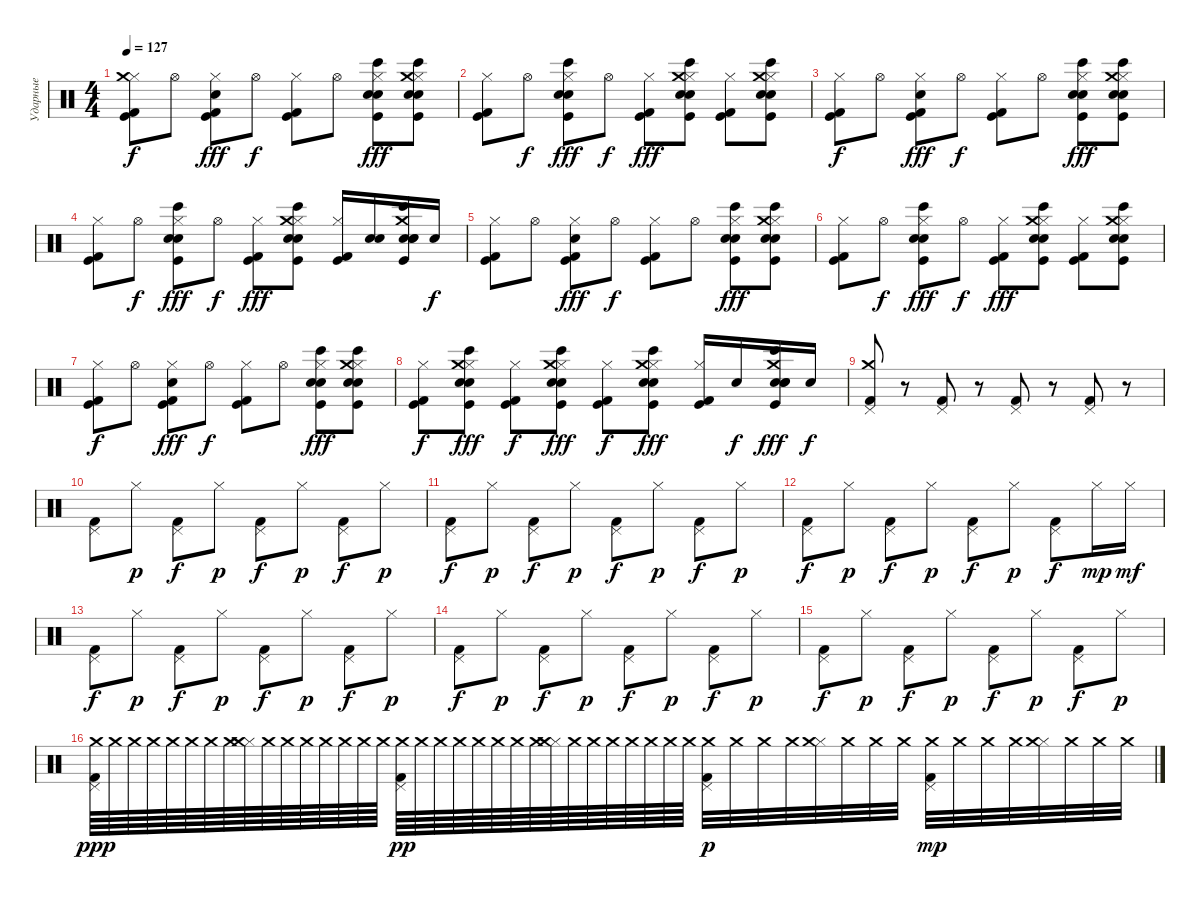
\track ("Ударные" "Ударные") {instrument percussion}
\staff {score}
\articulation defaults
\ts (4 4)
\tempo 127
\clef neutral
\ks c
("Kick (hit) 2" "Hi-Hat (closed)" "Kick (hit)" "Crash medium (hit)").8{dy f} "Hi-Hat (open)".8 ("Kick (hit) 2" "Hi-Hat (closed)" "Kick (hit)" "Hand Clap (hit)").8{dy fff} "Hi-Hat (open)".8{dy f} ("Kick (hit) 2" "Hi-Hat (closed)" "Kick (hit)").8 "Hi-Hat (open)".8 ("Hi-Hat (closed)" "Hand Clap (hit)" "Kick (hit)" "Snare (hit) 2" "Bongo High (hit)").8{dy fff} ("Hi-Hat (closed)" "Hand Clap (hit)" "Kick (hit)" "Snare (hit) 2" "Bongo High (hit)" "Crash medium (hit)").8 |
("Kick (hit) 2" "Kick (hit)" "Hi-Hat (closed)").8 "Hi-Hat (open)".8{dy f} ("Hi-Hat (closed)" "Hand Clap (hit)" "Kick (hit)" "Snare (hit) 2" "Bongo High (hit)").8{dy fff} "Hi-Hat (open)".8{dy f} ("Kick (hit) 2" "Kick (hit)" "Hi-Hat (closed)").8{dy fff} ("Hi-Hat (closed)" "Hand Clap (hit)" "Kick (hit)" "Snare (hit) 2" "Bongo High (hit)" "Crash medium (hit)").8 ("Kick (hit) 2" "Kick (hit)" "Hi-Hat (closed)").8 ("Hi-Hat (closed)" "Hand Clap (hit)" "Kick (hit)" "Snare (hit) 2" "Bongo High (hit)" "Crash medium (hit)").8 |
("Kick (hit) 2" "Hi-Hat (closed)" "Kick (hit)").8{dy f} "Hi-Hat (open)".8 ("Kick (hit) 2" "Hi-Hat (closed)" "Kick (hit)" "Hand Clap (hit)").8{dy fff} "Hi-Hat (open)".8{dy f} ("Kick (hit) 2" "Hi-Hat (closed)" "Kick (hit)").8 "Hi-Hat (open)".8 ("Hi-Hat (closed)" "Hand Clap (hit)" "Kick (hit)" "Snare (hit) 2" "Bongo High (hit)").8{dy fff} ("Hi-Hat (closed)" "Hand Clap (hit)" "Kick (hit)" "Snare (hit) 2" "Bongo High (hit)" "Crash medium (hit)").8 |
("Kick (hit) 2" "Kick (hit)" "Hi-Hat (closed)").8 "Hi-Hat (open)".8{dy f} ("Hi-Hat (closed)" "Hand Clap (hit)" "Kick (hit)" "Snare (hit) 2" "Bongo High (hit)").8{dy fff} "Hi-Hat (open)".8{dy f} ("Kick (hit) 2" "Kick (hit)" "Hi-Hat (closed)").8{dy fff} ("Hi-Hat (closed)" "Hand Clap (hit)" "Kick (hit)" "Snare (hit) 2" "Bongo High (hit)" "Crash medium (hit)").8 ("Kick (hit) 2" "Kick (hit)" "Hi-Hat (closed)").16 ("Hand Clap (hit)" "Snare (hit) 2").16 ("Electric Snare (hit)" "Hand Clap (hit)" "Kick (hit)" "Snare (hit) 2" "Bongo High (hit)" "Crash medium (hit)").16 "Electric Snare (hit)".16{dy f} |
("Kick (hit) 2" "Hi-Hat (closed)" "Kick (hit)").8 "Hi-Hat (open)".8 ("Kick (hit) 2" "Hi-Hat (closed)" "Kick (hit)" "Hand Clap (hit)").8{dy fff} "Hi-Hat (open)".8{dy f} ("Kick (hit) 2" "Hi-Hat (closed)" "Kick (hit)").8 "Hi-Hat (open)".8 ("Hi-Hat (closed)" "Hand Clap (hit)" "Kick (hit)" "Snare (hit) 2" "Bongo High (hit)").8{dy fff} ("Hi-Hat (closed)" "Hand Clap (hit)" "Kick (hit)" "Snare (hit) 2" "Bongo High (hit)" "Crash medium (hit)").8 |
("Kick (hit) 2" "Kick (hit)" "Hi-Hat (closed)").8 "Hi-Hat (open)".8{dy f} ("Hi-Hat (closed)" "Hand Clap (hit)" "Kick (hit)" "Snare (hit) 2" "Bongo High (hit)").8{dy fff} "Hi-Hat (open)".8{dy f} ("Kick (hit) 2" "Kick (hit)" "Hi-Hat (closed)").8{dy fff} ("Hi-Hat (closed)" "Hand Clap (hit)" "Kick (hit)" "Snare (hit) 2" "Bongo High (hit)" "Crash medium (hit)").8 ("Kick (hit) 2" "Kick (hit)" "Hi-Hat (closed)").8 ("Hi-Hat (closed)" "Hand Clap (hit)" "Kick (hit)" "Snare (hit) 2" "Bongo High (hit)" "Crash medium (hit)").8 |
("Kick (hit) 2" "Hi-Hat (closed)" "Kick (hit)").8{dy f} "Hi-Hat (open)".8 ("Kick (hit) 2" "Hi-Hat (closed)" "Kick (hit)" "Hand Clap (hit)").8{dy fff} "Hi-Hat (open)".8{dy f} ("Kick (hit) 2" "Hi-Hat (closed)" "Kick (hit)").8 "Hi-Hat (open)".8 ("Hi-Hat (closed)" "Hand Clap (hit)" "Kick (hit)" "Snare (hit) 2" "Bongo High (hit)").8{dy fff} ("Hi-Hat (closed)" "Hand Clap (hit)" "Kick (hit)" "Snare (hit) 2" "Bongo High (hit)" "Crash medium (hit)").8 |
("Kick (hit) 2" "Hi-Hat (closed)" "Kick (hit)").8{dy f} ("Hi-Hat (closed)" "Hand Clap (hit)" "Kick (hit)" "Snare (hit) 2" "Bongo High (hit)" "Crash medium (hit)").8{dy fff} ("Kick (hit) 2" "Hi-Hat (closed)" "Kick (hit)").8{dy f} ("Hi-Hat (closed)" "Hand Clap (hit)" "Kick (hit)" "Snare (hit) 2" "Bongo High (hit)" "Crash medium (hit)").8{dy fff} ("Kick (hit) 2" "Hi-Hat (closed)" "Kick (hit)").8{dy f} ("Hi-Hat (closed)" "Hand Clap (hit)" "Kick (hit)" "Snare (hit) 2" "Bongo High (hit)" "Crash medium (hit)").8{dy fff} ("Kick (hit) 2" "Kick (hit)" "Hi-Hat (closed)").16 "Electric Snare (hit)".16{dy f} ("Electric Snare (hit)" "Hand Clap (hit)" "Kick (hit)" "Snare (hit) 2" "Bongo High (hit)" "Crash medium (hit)").16{dy fff} "Electric Snare (hit)".16{dy f} |
("Kick (hit) 2" "Pedal Hi-Hat (hit)" "Crash medium (hit)").8 r.8 ("Kick (hit) 2" "Pedal Hi-Hat (hit)").8 r.8 ("Kick (hit) 2" "Pedal Hi-Hat (hit)").8 r.8 ("Kick (hit) 2" "Pedal Hi-Hat (hit)").8 r.8 |
("Kick (hit) 2" "Pedal Hi-Hat (hit)").8 "Hi-Hat (closed)".8{dy p} ("Kick (hit) 2" "Pedal Hi-Hat (hit)").8{dy f} "Hi-Hat (closed)".8{dy p} ("Kick (hit) 2" "Pedal Hi-Hat (hit)").8{dy f} "Hi-Hat (closed)".8{dy p} ("Kick (hit) 2" "Pedal Hi-Hat (hit)").8{dy f} "Hi-Hat (closed)".8{dy p} |
("Kick (hit) 2" "Pedal Hi-Hat (hit)").8{dy f} "Hi-Hat (closed)".8{dy p} ("Kick (hit) 2" "Pedal Hi-Hat (hit)").8{dy f} "Hi-Hat (closed)".8{dy p} ("Kick (hit) 2" "Pedal Hi-Hat (hit)").8{dy f} "Hi-Hat (closed)".8{dy p} ("Kick (hit) 2" "Pedal Hi-Hat (hit)").8{dy f} "Hi-Hat (closed)".8{dy p} |
("Kick (hit) 2" "Pedal Hi-Hat (hit)").8{dy f} "Hi-Hat (closed)".8{dy p} ("Kick (hit) 2" "Pedal Hi-Hat (hit)").8{dy f} "Hi-Hat (closed)".8{dy p} ("Kick (hit) 2" "Pedal Hi-Hat (hit)").8{dy f} "Hi-Hat (closed)".8{dy p} ("Kick (hit) 2" "Pedal Hi-Hat (hit)").8{dy f} "Hi-Hat (closed)".16{dy mp} "Hi-Hat (closed)".16{dy mf} |
("Kick (hit) 2" "Pedal Hi-Hat (hit)").8{dy f} "Hi-Hat (closed)".8{dy p} ("Kick (hit) 2" "Pedal Hi-Hat (hit)").8{dy f} "Hi-Hat (closed)".8{dy p} ("Kick (hit) 2" "Pedal Hi-Hat (hit)").8{dy f} "Hi-Hat (closed)".8{dy p} ("Kick (hit) 2" "Pedal Hi-Hat (hit)").8{dy f} "Hi-Hat (closed)".8{dy p} |
("Kick (hit) 2" "Pedal Hi-Hat (hit)").8{dy f} "Hi-Hat (closed)".8{dy p} ("Kick (hit) 2" "Pedal Hi-Hat (hit)").8{dy f} "Hi-Hat (closed)".8{dy p} ("Kick (hit) 2" "Pedal Hi-Hat (hit)").8{dy f} "Hi-Hat (closed)".8{dy p} ("Kick (hit) 2" "Pedal Hi-Hat (hit)").8{dy f} "Hi-Hat (closed)".8{dy p} |
("Kick (hit) 2" "Pedal Hi-Hat (hit)").8{dy f} "Hi-Hat (closed)".8{dy p} ("Kick (hit) 2" "Pedal Hi-Hat (hit)").8{dy f} "Hi-Hat (closed)".8{dy p} ("Kick (hit) 2" "Pedal Hi-Hat (hit)").8{dy f} "Hi-Hat (closed)".8{dy p} ("Kick (hit) 2" "Pedal Hi-Hat (hit)").8{dy f} "Hi-Hat (closed)".8{dy p} |
("Kick (hit) 2" "Pedal Hi-Hat (hit)" "Crash medium (hit)").64{dy ppp} "Crash medium (hit)".64 "Crash medium (hit)".64 "Crash medium (hit)".64 "Crash medium (hit)".64 "Crash medium (hit)".64 "Crash medium (hit)".64 "Crash medium (hit)".64 ("Hi-Hat (closed)" "Crash medium (hit)").64 "Crash medium (hit)".64 "Crash medium (hit)".64 "Crash medium (hit)".64 "Crash medium (hit)".64 "Crash medium (hit)".64 "Crash medium (hit)".64 "Crash medium (hit)".64 ("Kick (hit) 2" "Pedal Hi-Hat (hit)" "Crash medium (hit)").64{dy pp} "Crash medium (hit)".64 "Crash medium (hit)".64 "Crash medium (hit)".64 "Crash medium (hit)".64 "Crash medium (hit)".64 "Crash medium (hit)".64 "Crash medium (hit)".64 ("Hi-Hat (closed)" "Crash medium (hit)").64 "Crash medium (hit)".64 "Crash medium (hit)".64 "Crash medium (hit)".64 "Crash medium (hit)".64 "Crash medium (hit)".64 "Crash medium (hit)".64 "Crash medium (hit)".64 ("Kick (hit) 2" "Pedal Hi-Hat (hit)" "Crash medium (hit)").32{dy p} "Crash medium (hit)".32 "Crash medium (hit)".32 "Crash medium (hit)".32 ("Hi-Hat (closed)" "Crash medium (hit)").32 "Crash medium (hit)".32 "Crash medium (hit)".32 "Crash medium (hit)".32 ("Kick (hit) 2" "Pedal Hi-Hat (hit)" "Crash medium (hit)").32{dy mp} "Crash medium (hit)".32 "Crash medium (hit)".32 "Crash medium (hit)".32 ("Hi-Hat (closed)" "Crash medium (hit)").32 "Crash medium (hit)".32 "Crash medium (hit)".32 "Crash medium (hit)".32
